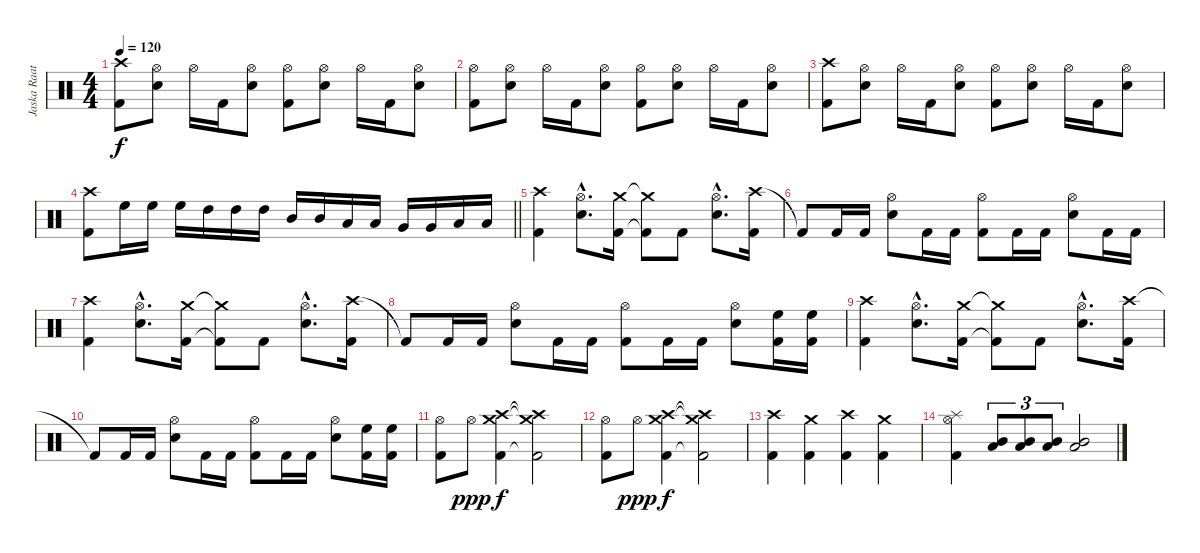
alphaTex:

\track ("Jaska Raatikainen" "Jaska Raat") {instrument percussion}
\staff {score}
\articulation defaults
\ts (4 4)
\tempo 120
\clef neutral
\ks c
("Crash high (hit)" "Kick (hit) 2").8{dy f} ("Hi-Hat (open)" "Electric Snare (hit)").8 "Hi-Hat (open)".16 "Kick (hit) 2".16 ("Hi-Hat (open)" "Electric Snare (hit)").8 ("Hi-Hat (open)" "Kick (hit) 2").8 ("Hi-Hat (open)" "Electric Snare (hit)").8 "Hi-Hat (open)".16 "Kick (hit) 2".16 ("Hi-Hat (open)" "Electric Snare (hit)").8 |
("Hi-Hat (open)" "Kick (hit) 2").8 ("Hi-Hat (open)" "Electric Snare (hit)").8 "Hi-Hat (open)".16 "Kick (hit) 2".16 ("Hi-Hat (open)" "Electric Snare (hit)").8 ("Hi-Hat (open)" "Kick (hit) 2").8 ("Hi-Hat (open)" "Electric Snare (hit)").8 "Hi-Hat (open)".16 "Kick (hit) 2".16 ("Hi-Hat (open)" "Electric Snare (hit)").8 |
("Crash high (hit)" "Kick (hit) 2").8 ("Hi-Hat (open)" "Electric Snare (hit)").8 "Hi-Hat (open)".16 "Kick (hit) 2".16 ("Hi-Hat (open)" "Electric Snare (hit)").8 ("Hi-Hat (open)" "Kick (hit) 2").8 ("Hi-Hat (open)" "Electric Snare (hit)").8 "Hi-Hat (open)".16 "Kick (hit) 2".16 ("Hi-Hat (open)" "Electric Snare (hit)").8 |
\barLineRight lightlight
("Crash high (hit)" "Kick (hit) 2").8 "High Floor Tom (hit)".16 "High Floor Tom (hit)".16 "High Floor Tom (hit)".16 "High Tom (hit)".16 "High Tom (hit)".16 "High Tom (hit)".16 "Mid Tom (hit)".16 "Mid Tom (hit)".16 "Low Tom (hit)".16 "Low Tom (hit)".16 "Very Low Tom (hit)".16 "Very Low Tom (hit)".16 "Low Floor Tom (hit)".16 "Low Floor Tom (hit)".16 |
("Crash high (hit)" "Kick (hit) 2").4 ("Hi-Hat (open)"{hac} "Electric Snare (hit)"{hac}).8{d} ("Crash medium (hit)" "Kick (hit) 2").16 ("Crash medium (hit)"{t} "Kick (hit) 2"{t}).8 "Kick (hit) 2".8 ("Hi-Hat (open)"{hac} "Electric Snare (hit)"{hac}).8{d} ("Crash high (hit)" "Kick (hit) 2").16 |
"Kick (hit) 2"{t}.8 "Kick (hit) 2".16 "Kick (hit) 2".16 ("Hi-Hat (open)" "Electric Snare (hit)").8 "Kick (hit) 2".16 "Kick (hit) 2".16 ("Hi-Hat (open)" "Kick (hit) 2").8 "Kick (hit) 2".16 "Kick (hit) 2".16 ("Hi-Hat (open)" "Electric Snare (hit)").8 "Kick (hit) 2".16 "Kick (hit) 2".16 |
("Crash high (hit)" "Kick (hit) 2").4 ("Hi-Hat (open)"{hac} "Electric Snare (hit)"{hac}).8{d} ("Crash medium (hit)" "Kick (hit) 2").16 ("Crash medium (hit)"{t} "Kick (hit) 2"{t}).8 "Kick (hit) 2".8 ("Hi-Hat (open)"{hac} "Electric Snare (hit)"{hac}).8{d} ("Crash high (hit)" "Kick (hit) 2").16 |
"Kick (hit) 2"{t}.8 "Kick (hit) 2".16 "Kick (hit) 2".16 ("Hi-Hat (open)" "Electric Snare (hit)").8 "Kick (hit) 2".16 "Kick (hit) 2".16 ("Hi-Hat (open)" "Kick (hit) 2").8 "Kick (hit) 2".16 "Kick (hit) 2".16 ("Hi-Hat (open)" "Electric Snare (hit)").8 ("High Floor Tom (hit)" "Kick (hit) 2").16 ("High Floor Tom (hit)" "Kick (hit) 2").16 |
("Crash high (hit)" "Kick (hit) 2").4 ("Hi-Hat (open)"{hac} "Electric Snare (hit)"{hac}).8{d} ("Crash medium (hit)" "Kick (hit) 2").16 ("Crash medium (hit)"{t} "Kick (hit) 2"{t}).8 "Kick (hit) 2".8 ("Hi-Hat (open)"{hac} "Electric Snare (hit)"{hac}).8{d} ("Crash high (hit)" "Kick (hit) 2").16 |
"Kick (hit) 2"{t}.8 "Kick (hit) 2".16 "Kick (hit) 2".16 ("Hi-Hat (open)" "Electric Snare (hit)").8 "Kick (hit) 2".16 "Kick (hit) 2".16 ("Hi-Hat (open)" "Kick (hit) 2").8 "Kick (hit) 2".16 "Kick (hit) 2".16 ("Hi-Hat (open)" "Electric Snare (hit)").8 ("High Floor Tom (hit)" "Kick (hit) 2").16 ("High Floor Tom (hit)" "Kick (hit) 2").16 |
("Hi-Hat (open)" "Kick (hit) 2").8 "Hi-Hat (open)".8{dy ppp} ("Crash high (hit)" "Crash medium (hit)" "Kick (hit) 2").4{dy f} ("Crash high (hit)"{t} "Crash medium (hit)"{t} "Kick (hit) 2"{t}).2 |
("Hi-Hat (open)" "Kick (hit) 2").8 "Hi-Hat (open)".8{dy ppp} ("Crash high (hit)" "Crash medium (hit)" "Kick (hit) 2").4{dy f} ("Crash high (hit)"{t} "Crash medium (hit)"{t} "Kick (hit) 2"{t}).2 |
("Crash high (hit)" "Kick (hit) 2").4 ("Crash medium (hit)" "Kick (hit) 2").4 ("Crash high (hit)" "Kick (hit) 2").4 ("Crash medium (hit)" "Kick (hit) 2").4 |
("Hi-Hat (open)" "Splash (hit)" "Kick (hit) 2").4 ("Mid Tom (hit)" "Low Tom (hit)").8{tu (3 2)} ("Mid Tom (hit)" "Low Tom (hit)").8{tu (3 2)} ("Mid Tom (hit)" "Low Tom (hit)").8{tu (3 2)} ("Mid Tom (hit)" "Low Tom (hit)").2
